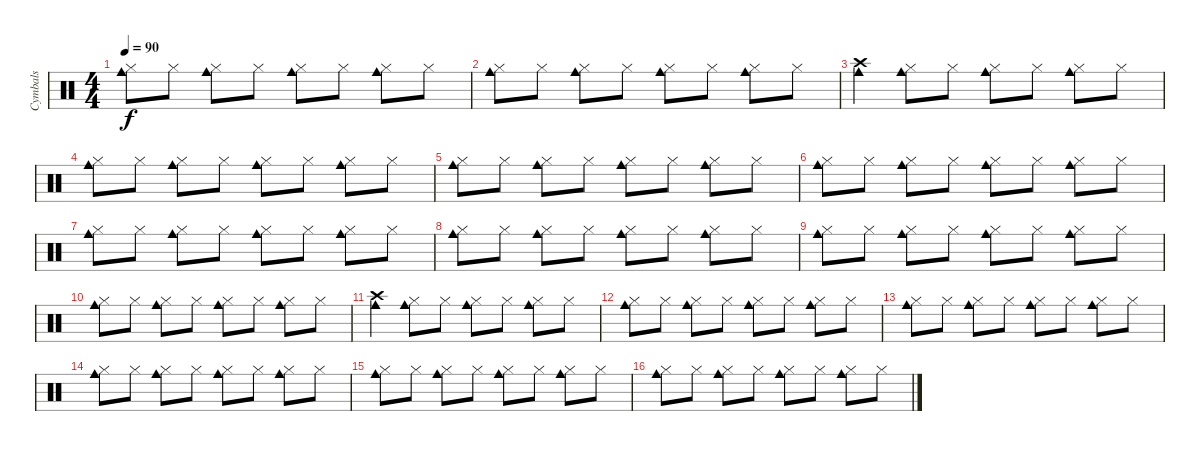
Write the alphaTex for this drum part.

\track ("Cymbals" "Cymbals") {instrument percussion}
\staff {score}
\articulation defaults
\ts (4 4)
\tempo 90
\clef neutral
\ks c
("Cowbell medium (hit)" "Hi-Hat (closed)").8{dy f} "Hi-Hat (closed)".8 ("Cowbell medium (hit)" "Hi-Hat (closed)").8 "Hi-Hat (closed)".8 ("Cowbell medium (hit)" "Hi-Hat (closed)").8 "Hi-Hat (closed)".8 ("Cowbell medium (hit)" "Hi-Hat (closed)").8 "Hi-Hat (closed)".8 |
("Cowbell medium (hit)" "Hi-Hat (closed)").8 "Hi-Hat (closed)".8 ("Cowbell medium (hit)" "Hi-Hat (closed)").8 "Hi-Hat (closed)".8 ("Cowbell medium (hit)" "Hi-Hat (closed)").8 "Hi-Hat (closed)".8 ("Cowbell medium (hit)" "Hi-Hat (closed)").8 "Hi-Hat (closed)".8 |
("Cowbell medium (hit)" "Crash high (hit)").4 ("Cowbell medium (hit)" "Hi-Hat (closed)").8 "Hi-Hat (closed)".8 ("Cowbell medium (hit)" "Hi-Hat (closed)").8 "Hi-Hat (closed)".8 ("Cowbell medium (hit)" "Hi-Hat (closed)").8 "Hi-Hat (closed)".8 |
("Cowbell medium (hit)" "Hi-Hat (closed)").8 "Hi-Hat (closed)".8 ("Cowbell medium (hit)" "Hi-Hat (closed)").8 "Hi-Hat (closed)".8 ("Cowbell medium (hit)" "Hi-Hat (closed)").8 "Hi-Hat (closed)".8 ("Cowbell medium (hit)" "Hi-Hat (closed)").8 "Hi-Hat (closed)".8 |
("Cowbell medium (hit)" "Hi-Hat (closed)").8 "Hi-Hat (closed)".8 ("Cowbell medium (hit)" "Hi-Hat (closed)").8 "Hi-Hat (closed)".8 ("Cowbell medium (hit)" "Hi-Hat (closed)").8 "Hi-Hat (closed)".8 ("Cowbell medium (hit)" "Hi-Hat (closed)").8 "Hi-Hat (closed)".8 |
("Cowbell medium (hit)" "Hi-Hat (closed)").8 "Hi-Hat (closed)".8 ("Cowbell medium (hit)" "Hi-Hat (closed)").8 "Hi-Hat (closed)".8 ("Cowbell medium (hit)" "Hi-Hat (closed)").8 "Hi-Hat (closed)".8 ("Cowbell medium (hit)" "Hi-Hat (closed)").8 "Hi-Hat (closed)".8 |
("Cowbell medium (hit)" "Hi-Hat (closed)").8 "Hi-Hat (closed)".8 ("Cowbell medium (hit)" "Hi-Hat (closed)").8 "Hi-Hat (closed)".8 ("Cowbell medium (hit)" "Hi-Hat (closed)").8 "Hi-Hat (closed)".8 ("Cowbell medium (hit)" "Hi-Hat (closed)").8 "Hi-Hat (closed)".8 |
("Cowbell medium (hit)" "Hi-Hat (closed)").8 "Hi-Hat (closed)".8 ("Cowbell medium (hit)" "Hi-Hat (closed)").8 "Hi-Hat (closed)".8 ("Cowbell medium (hit)" "Hi-Hat (closed)").8 "Hi-Hat (closed)".8 ("Cowbell medium (hit)" "Hi-Hat (closed)").8 "Hi-Hat (closed)".8 |
("Cowbell medium (hit)" "Hi-Hat (closed)").8 "Hi-Hat (closed)".8 ("Cowbell medium (hit)" "Hi-Hat (closed)").8 "Hi-Hat (closed)".8 ("Cowbell medium (hit)" "Hi-Hat (closed)").8 "Hi-Hat (closed)".8 ("Cowbell medium (hit)" "Hi-Hat (closed)").8 "Hi-Hat (closed)".8 |
("Cowbell medium (hit)" "Hi-Hat (closed)").8 "Hi-Hat (closed)".8 ("Cowbell medium (hit)" "Hi-Hat (closed)").8 "Hi-Hat (closed)".8 ("Cowbell medium (hit)" "Hi-Hat (closed)").8 "Hi-Hat (closed)".8 ("Cowbell medium (hit)" "Hi-Hat (closed)").8 "Hi-Hat (closed)".8 |
("Cowbell medium (hit)" "Crash high (hit)").4 ("Cowbell medium (hit)" "Hi-Hat (closed)").8 "Hi-Hat (closed)".8 ("Cowbell medium (hit)" "Hi-Hat (closed)").8 "Hi-Hat (closed)".8 ("Cowbell medium (hit)" "Hi-Hat (closed)").8 "Hi-Hat (closed)".8 |
("Cowbell medium (hit)" "Hi-Hat (closed)").8 "Hi-Hat (closed)".8 ("Cowbell medium (hit)" "Hi-Hat (closed)").8 "Hi-Hat (closed)".8 ("Cowbell medium (hit)" "Hi-Hat (closed)").8 "Hi-Hat (closed)".8 ("Cowbell medium (hit)" "Hi-Hat (closed)").8 "Hi-Hat (closed)".8 |
("Cowbell medium (hit)" "Hi-Hat (closed)").8 "Hi-Hat (closed)".8 ("Cowbell medium (hit)" "Hi-Hat (closed)").8 "Hi-Hat (closed)".8 ("Cowbell medium (hit)" "Hi-Hat (closed)").8 "Hi-Hat (closed)".8 ("Cowbell medium (hit)" "Hi-Hat (closed)").8 "Hi-Hat (closed)".8 |
("Cowbell medium (hit)" "Hi-Hat (closed)").8 "Hi-Hat (closed)".8 ("Cowbell medium (hit)" "Hi-Hat (closed)").8 "Hi-Hat (closed)".8 ("Cowbell medium (hit)" "Hi-Hat (closed)").8 "Hi-Hat (closed)".8 ("Cowbell medium (hit)" "Hi-Hat (closed)").8 "Hi-Hat (closed)".8 |
("Cowbell medium (hit)" "Hi-Hat (closed)").8 "Hi-Hat (closed)".8 ("Cowbell medium (hit)" "Hi-Hat (closed)").8 "Hi-Hat (closed)".8 ("Cowbell medium (hit)" "Hi-Hat (closed)").8 "Hi-Hat (closed)".8 ("Cowbell medium (hit)" "Hi-Hat (closed)").8 "Hi-Hat (closed)".8 |
("Cowbell medium (hit)" "Hi-Hat (closed)").8 "Hi-Hat (closed)".8 ("Cowbell medium (hit)" "Hi-Hat (closed)").8 "Hi-Hat (closed)".8 ("Cowbell medium (hit)" "Hi-Hat (closed)").8 "Hi-Hat (closed)".8 ("Cowbell medium (hit)" "Hi-Hat (closed)").8 "Hi-Hat (closed)".8
